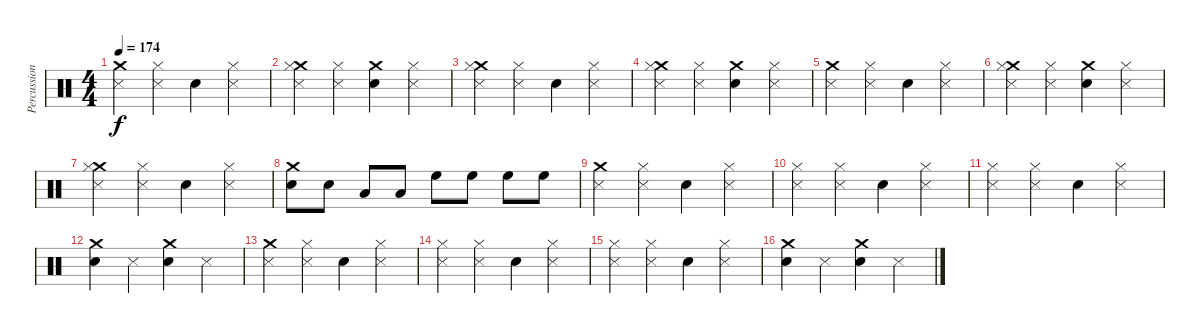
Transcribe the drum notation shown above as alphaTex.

\track ("Percussion" "Percussion") {instrument percussion}
\staff {score}
\articulation defaults
\ts (4 4)
\tempo 174
\clef neutral
\ks c
("Crash medium (hit)" "Metronome (hit)").4{dy f} ("Hi-Hat (closed)" "Metronome (hit)").4 "Electric Snare (hit)".4 ("Hi-Hat (closed)" "Metronome (hit)").4 |
("Crash medium (hit)" "Hi-Hat (closed)" "Metronome (hit)").4 ("Hi-Hat (closed)" "Metronome (hit)").4 ("Crash medium (hit)" "Electric Snare (hit)").4 ("Hi-Hat (closed)" "Metronome (hit)").4 |
("Crash medium (hit)" "Hi-Hat (closed)" "Metronome (hit)").4 ("Hi-Hat (closed)" "Metronome (hit)").4 "Electric Snare (hit)".4 ("Hi-Hat (closed)" "Metronome (hit)").4 |
("Crash medium (hit)" "Hi-Hat (closed)" "Metronome (hit)").4 ("Hi-Hat (closed)" "Metronome (hit)").4 ("Crash medium (hit)" "Electric Snare (hit)").4 ("Hi-Hat (closed)" "Metronome (hit)").4 |
("Crash medium (hit)" "Metronome (hit)").4 ("Hi-Hat (closed)" "Metronome (hit)").4 "Electric Snare (hit)".4 ("Hi-Hat (closed)" "Metronome (hit)").4 |
("Crash medium (hit)" "Hi-Hat (closed)" "Metronome (hit)").4 ("Hi-Hat (closed)" "Metronome (hit)").4 ("Crash medium (hit)" "Electric Snare (hit)").4 ("Hi-Hat (closed)" "Metronome (hit)").4 |
("Crash medium (hit)" "Hi-Hat (closed)" "Metronome (hit)").4 ("Hi-Hat (closed)" "Metronome (hit)").4 "Electric Snare (hit)".4 ("Hi-Hat (closed)" "Metronome (hit)").4 |
("Crash medium (hit)" "Electric Snare (hit)").8 "Electric Snare (hit)".8 "Low Tom (hit)".8 "Low Tom (hit)".8 "High Floor Tom (hit)".8 "High Floor Tom (hit)".8 "High Floor Tom (hit)".8 "High Floor Tom (hit)".8 |
("Crash medium (hit)" "Metronome (hit)").4 ("Hi-Hat (closed)" "Metronome (hit)").4 "Electric Snare (hit)".4 ("Hi-Hat (closed)" "Metronome (hit)").4 |
("Hi-Hat (closed)" "Metronome (hit)").4 ("Hi-Hat (closed)" "Metronome (hit)").4 "Electric Snare (hit)".4 ("Hi-Hat (closed)" "Metronome (hit)").4 |
("Hi-Hat (closed)" "Metronome (hit)").4 ("Hi-Hat (closed)" "Metronome (hit)").4 "Electric Snare (hit)".4 ("Hi-Hat (closed)" "Metronome (hit)").4 |
("Crash medium (hit)" "Electric Snare (hit)").4 "Metronome (hit)".4 ("Crash medium (hit)" "Electric Snare (hit)").4 "Metronome (hit)".4 |
("Crash medium (hit)" "Metronome (hit)").4 ("Hi-Hat (closed)" "Metronome (hit)").4 "Electric Snare (hit)".4 ("Hi-Hat (closed)" "Metronome (hit)").4 |
("Hi-Hat (closed)" "Metronome (hit)").4 ("Hi-Hat (closed)" "Metronome (hit)").4 "Electric Snare (hit)".4 ("Hi-Hat (closed)" "Metronome (hit)").4 |
("Hi-Hat (closed)" "Metronome (hit)").4 ("Hi-Hat (closed)" "Metronome (hit)").4 "Electric Snare (hit)".4 ("Hi-Hat (closed)" "Metronome (hit)").4 |
("Crash medium (hit)" "Electric Snare (hit)").4 "Metronome (hit)".4 ("Crash medium (hit)" "Electric Snare (hit)").4 "Metronome (hit)".4
